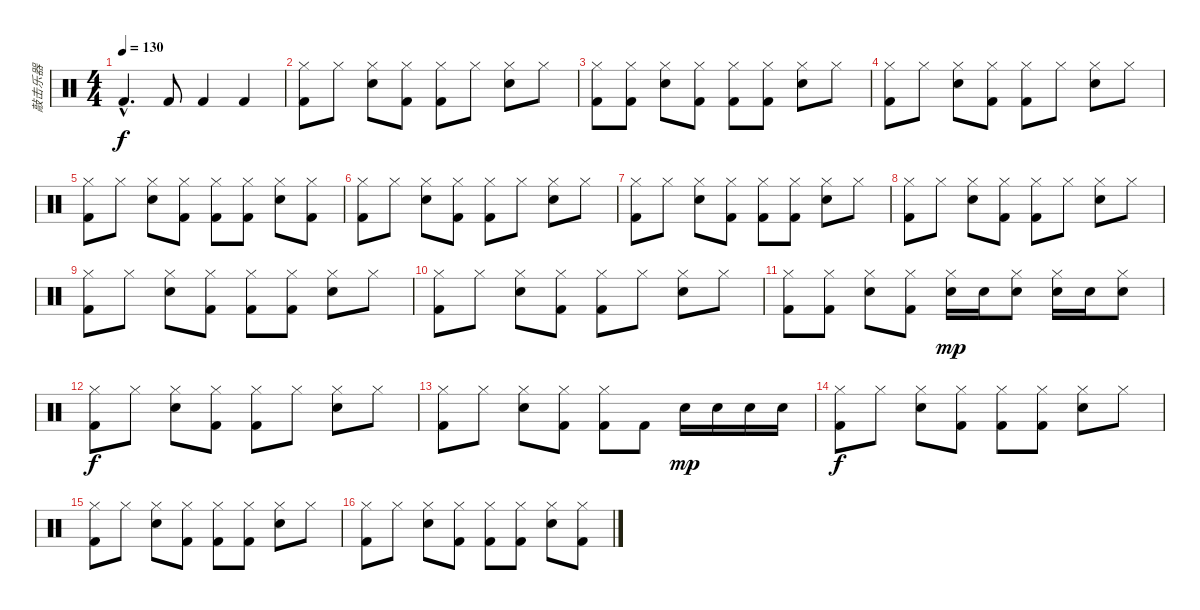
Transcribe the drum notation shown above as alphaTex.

\track ("敲击乐器" "敲击乐器") {instrument percussion}
\staff {score}
\articulation defaults
\ts (4 4)
\tempo 130
\clef neutral
\ks c "Kick (hit) 2"{hac}.4{d dy f} "Kick (hit) 2".8 "Kick (hit) 2".4 "Kick (hit) 2".4
|
("Hi-Hat (closed)" "Kick (hit) 2").8 "Hi-Hat (closed)".8 ("Hi-Hat (closed)" "Electric Snare (hit)").8 ("Hi-Hat (closed)" "Kick (hit) 2").8 ("Hi-Hat (closed)" "Kick (hit) 2").8 "Hi-Hat (closed)".8 ("Hi-Hat (closed)" "Electric Snare (hit)").8 "Hi-Hat (closed)".8 |
("Hi-Hat (closed)" "Kick (hit) 2").8 ("Hi-Hat (closed)" "Kick (hit) 2").8 ("Hi-Hat (closed)" "Electric Snare (hit)").8 ("Hi-Hat (closed)" "Kick (hit) 2").8 ("Hi-Hat (closed)" "Kick (hit) 2").8 ("Hi-Hat (closed)" "Kick (hit) 2").8 ("Hi-Hat (closed)" "Electric Snare (hit)").8 "Hi-Hat (closed)".8 |
("Hi-Hat (closed)" "Kick (hit) 2").8 "Hi-Hat (closed)".8 ("Hi-Hat (closed)" "Electric Snare (hit)").8 ("Hi-Hat (closed)" "Kick (hit) 2").8 ("Hi-Hat (closed)" "Kick (hit) 2").8 "Hi-Hat (closed)".8 ("Hi-Hat (closed)" "Electric Snare (hit)").8 "Hi-Hat (closed)".8 |
("Hi-Hat (closed)" "Kick (hit) 2").8 "Hi-Hat (closed)".8 ("Hi-Hat (closed)" "Electric Snare (hit)").8 ("Hi-Hat (closed)" "Kick (hit) 2").8 ("Hi-Hat (closed)" "Kick (hit) 2").8 ("Hi-Hat (closed)" "Kick (hit) 2").8 ("Hi-Hat (closed)" "Electric Snare (hit)").8 ("Hi-Hat (closed)" "Kick (hit) 2").8 |
("Hi-Hat (closed)" "Kick (hit) 2").8 "Hi-Hat (closed)".8 ("Hi-Hat (closed)" "Electric Snare (hit)").8 ("Hi-Hat (closed)" "Kick (hit) 2").8 ("Hi-Hat (closed)" "Kick (hit) 2").8 "Hi-Hat (closed)".8 ("Hi-Hat (closed)" "Electric Snare (hit)").8 "Hi-Hat (closed)".8 |
("Hi-Hat (closed)" "Kick (hit) 2").8 "Hi-Hat (closed)".8 ("Hi-Hat (closed)" "Electric Snare (hit)").8 ("Hi-Hat (closed)" "Kick (hit) 2").8 ("Hi-Hat (closed)" "Kick (hit) 2").8 ("Hi-Hat (closed)" "Kick (hit) 2").8 ("Hi-Hat (closed)" "Electric Snare (hit)").8 "Hi-Hat (closed)".8 |
("Hi-Hat (closed)" "Kick (hit) 2").8 "Hi-Hat (closed)".8 ("Hi-Hat (closed)" "Electric Snare (hit)").8 ("Hi-Hat (closed)" "Kick (hit) 2").8 ("Hi-Hat (closed)" "Kick (hit) 2").8 "Hi-Hat (closed)".8 ("Hi-Hat (closed)" "Electric Snare (hit)").8 "Hi-Hat (closed)".8 |
("Hi-Hat (closed)" "Kick (hit) 2").8 "Hi-Hat (closed)".8 ("Hi-Hat (closed)" "Electric Snare (hit)").8 ("Hi-Hat (closed)" "Kick (hit) 2").8 ("Hi-Hat (closed)" "Kick (hit) 2").8 ("Hi-Hat (closed)" "Kick (hit) 2").8 ("Hi-Hat (closed)" "Electric Snare (hit)").8 "Hi-Hat (closed)".8 |
("Hi-Hat (closed)" "Kick (hit) 2").8 "Hi-Hat (closed)".8 ("Hi-Hat (closed)" "Electric Snare (hit)").8 ("Hi-Hat (closed)" "Kick (hit) 2").8 ("Hi-Hat (closed)" "Kick (hit) 2").8 "Hi-Hat (closed)".8 ("Hi-Hat (closed)" "Electric Snare (hit)").8 "Hi-Hat (closed)".8 |
("Hi-Hat (closed)" "Kick (hit) 2").8 ("Hi-Hat (closed)" "Kick (hit) 2").8 ("Hi-Hat (closed)" "Electric Snare (hit)").8 ("Hi-Hat (closed)" "Kick (hit) 2").8 ("Hi-Hat (closed)" "Electric Snare (hit)").16{dy mp} "Electric Snare (hit)".16 ("Hi-Hat (closed)" "Electric Snare (hit)").8 ("Hi-Hat (closed)" "Electric Snare (hit)").16 "Electric Snare (hit)".16 ("Hi-Hat (closed)" "Electric Snare (hit)").8 |
("Hi-Hat (closed)" "Kick (hit) 2").8{dy f} "Hi-Hat (closed)".8 ("Hi-Hat (closed)" "Electric Snare (hit)").8 ("Hi-Hat (closed)" "Kick (hit) 2").8 ("Hi-Hat (closed)" "Kick (hit) 2").8 "Hi-Hat (closed)".8 ("Hi-Hat (closed)" "Electric Snare (hit)").8 "Hi-Hat (closed)".8 |
("Hi-Hat (closed)" "Kick (hit) 2").8 "Hi-Hat (closed)".8 ("Hi-Hat (closed)" "Electric Snare (hit)").8 ("Hi-Hat (closed)" "Kick (hit) 2").8 ("Hi-Hat (closed)" "Kick (hit) 2").8 "Kick (hit) 2".8 "Electric Snare (hit)".16{dy mp} "Electric Snare (hit)".16 "Electric Snare (hit)".16 "Electric Snare (hit)".16 |
("Hi-Hat (closed)" "Kick (hit) 2").8{dy f} "Hi-Hat (closed)".8 ("Hi-Hat (closed)" "Electric Snare (hit)").8 ("Hi-Hat (closed)" "Kick (hit) 2").8 ("Hi-Hat (closed)" "Kick (hit) 2").8 ("Hi-Hat (closed)" "Kick (hit) 2").8 ("Hi-Hat (closed)" "Electric Snare (hit)").8 "Hi-Hat (closed)".8 |
("Hi-Hat (closed)" "Kick (hit) 2").8 "Hi-Hat (closed)".8 ("Hi-Hat (closed)" "Electric Snare (hit)").8 ("Hi-Hat (closed)" "Kick (hit) 2").8 ("Hi-Hat (closed)" "Kick (hit) 2").8 ("Hi-Hat (closed)" "Kick (hit) 2").8 ("Hi-Hat (closed)" "Electric Snare (hit)").8 "Hi-Hat (closed)".8 |
("Hi-Hat (closed)" "Kick (hit) 2").8 "Hi-Hat (closed)".8 ("Hi-Hat (closed)" "Electric Snare (hit)").8 ("Hi-Hat (closed)" "Kick (hit) 2").8 ("Hi-Hat (closed)" "Kick (hit) 2").8 ("Hi-Hat (closed)" "Kick (hit) 2").8 ("Hi-Hat (closed)" "Electric Snare (hit)").8 ("Hi-Hat (closed)" "Kick (hit) 2").8
